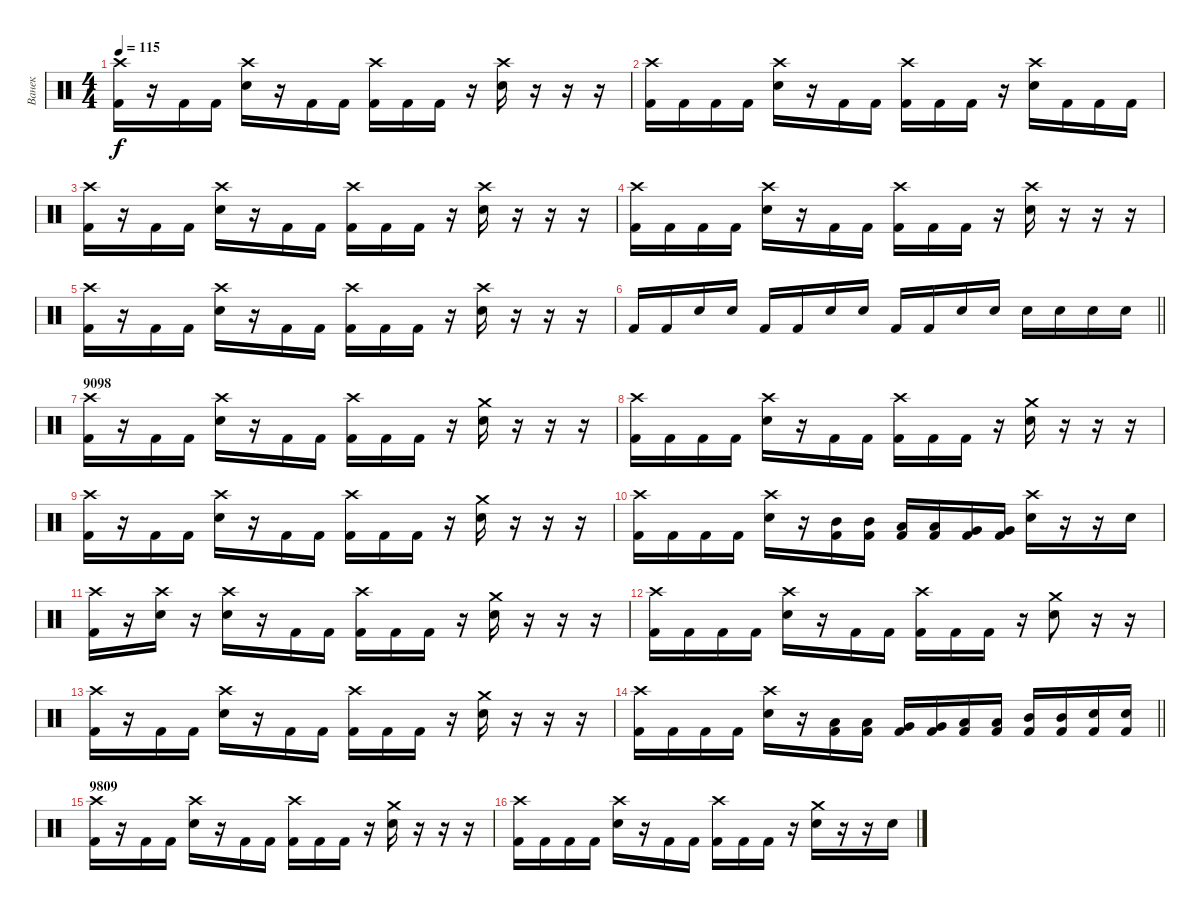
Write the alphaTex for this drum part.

\track ("Ванек" "Ванек") {instrument percussion}
\staff {score}
\articulation defaults
\ts (4 4)
\tempo 115
\clef neutral
\ks c
("Crash high (hit)" "Kick (hit) 2").16{dy f} r.16 "Kick (hit) 2".16 "Kick (hit) 2".16 ("Crash high (hit)" "Snare (hit) 2").16 r.16 "Kick (hit) 2".16 "Kick (hit) 2".16 ("Crash high (hit)" "Kick (hit) 2").16 "Kick (hit) 2".16 "Kick (hit) 2".16 r.16 ("Crash high (hit)" "Snare (hit) 2").16 r.16 r.16 r.16 |
("Crash high (hit)" "Kick (hit) 2").16 "Kick (hit) 2".16 "Kick (hit) 2".16 "Kick (hit) 2".16 ("Crash high (hit)" "Snare (hit) 2").16 r.16 "Kick (hit) 2".16 "Kick (hit) 2".16 ("Crash high (hit)" "Kick (hit) 2").16 "Kick (hit) 2".16 "Kick (hit) 2".16 r.16 ("Crash high (hit)" "Snare (hit) 2").16 "Kick (hit) 2".16 "Kick (hit) 2".16 "Kick (hit) 2".16 |
("Crash high (hit)" "Kick (hit) 2").16 r.16 "Kick (hit) 2".16 "Kick (hit) 2".16 ("Crash high (hit)" "Snare (hit) 2").16 r.16 "Kick (hit) 2".16 "Kick (hit) 2".16 ("Crash high (hit)" "Kick (hit) 2").16 "Kick (hit) 2".16 "Kick (hit) 2".16 r.16 ("Crash high (hit)" "Snare (hit) 2").16 r.16 r.16 r.16 |
("Crash high (hit)" "Kick (hit) 2").16 "Kick (hit) 2".16 "Kick (hit) 2".16 "Kick (hit) 2".16 ("Crash high (hit)" "Snare (hit) 2").16 r.16 "Kick (hit) 2".16 "Kick (hit) 2".16 ("Crash high (hit)" "Kick (hit) 2").16 "Kick (hit) 2".16 "Kick (hit) 2".16 r.16 ("Crash high (hit)" "Snare (hit) 2").16 r.16 r.16 r.16 |
("Crash high (hit)" "Kick (hit) 2").16 r.16 "Kick (hit) 2".16 "Kick (hit) 2".16 ("Crash high (hit)" "Snare (hit) 2").16 r.16 "Kick (hit) 2".16 "Kick (hit) 2".16 ("Crash high (hit)" "Kick (hit) 2").16 "Kick (hit) 2".16 "Kick (hit) 2".16 r.16 ("Crash high (hit)" "Snare (hit) 2").16 r.16 r.16 r.16 |
\barLineRight lightlight "Kick (hit) 2".16 "Kick (hit) 2".16 "Snare (hit) 2".16 "Snare (hit) 2".16 "Kick (hit) 2".16 "Kick (hit) 2".16 "Snare (hit) 2".16 "Snare (hit) 2".16 "Kick (hit) 2".16 "Kick (hit) 2".16 "Snare (hit) 2".16 "Snare (hit) 2".16 "Snare (hit) 2".16 "Snare (hit) 2".16 "Snare (hit) 2".16 "Snare (hit) 2".16
|
\section ("" "9098")
("Crash high (hit)" "Kick (hit) 2").16 r.16 "Kick (hit) 2".16 "Kick (hit) 2".16 ("Crash high (hit)" "Snare (hit) 2").16 r.16 "Kick (hit) 2".16 "Kick (hit) 2".16 ("Crash high (hit)" "Kick (hit) 2").16 "Kick (hit) 2".16 "Kick (hit) 2".16 r.16 ("Crash medium (hit)" "Snare (hit) 2").16 r.16 r.16 r.16 |
("Crash high (hit)" "Kick (hit) 2").16 "Kick (hit) 2".16 "Kick (hit) 2".16 "Kick (hit) 2".16 ("Crash high (hit)" "Snare (hit) 2").16 r.16 "Kick (hit) 2".16 "Kick (hit) 2".16 ("Crash high (hit)" "Kick (hit) 2").16 "Kick (hit) 2".16 "Kick (hit) 2".16 r.16 ("Crash medium (hit)" "Snare (hit) 2").16 r.16 r.16 r.16 |
("Crash high (hit)" "Kick (hit) 2").16 r.16 "Kick (hit) 2".16 "Kick (hit) 2".16 ("Crash high (hit)" "Snare (hit) 2").16 r.16 "Kick (hit) 2".16 "Kick (hit) 2".16 ("Crash high (hit)" "Kick (hit) 2").16 "Kick (hit) 2".16 "Kick (hit) 2".16 r.16 ("Crash medium (hit)" "Snare (hit) 2").16 r.16 r.16 r.16 |
("Crash high (hit)" "Kick (hit) 2").16 "Kick (hit) 2".16 "Kick (hit) 2".16 "Kick (hit) 2".16 ("Crash high (hit)" "Snare (hit) 2").16 r.16 ("Mid Tom (hit)" "Kick (hit) 2").16 ("Mid Tom (hit)" "Kick (hit) 2").16 ("Low Tom (hit)" "Kick (hit) 2").16 ("Low Floor Tom (hit)" "Kick (hit) 2").16 ("Very Low Tom (hit)" "Kick (hit) 2").16 ("Very Low Tom (hit)" "Kick (hit) 2").16 ("Crash high (hit)" "Snare (hit) 2").16 r.16 r.16 "Snare (hit) 2".16 |
("Crash high (hit)" "Kick (hit) 2").16 r.16 ("Crash high (hit)" "Snare (hit) 2").16 r.16 ("Crash high (hit)" "Snare (hit) 2").16 r.16 "Kick (hit) 2".16 "Kick (hit) 2".16 ("Crash high (hit)" "Kick (hit) 2").16 "Kick (hit) 2".16 "Kick (hit) 2".16 r.16 ("Crash medium (hit)" "Snare (hit) 2").16 r.16 r.16 r.16 |
("Crash high (hit)" "Kick (hit) 2").16 "Kick (hit) 2".16 "Kick (hit) 2".16 "Kick (hit) 2".16 ("Crash high (hit)" "Snare (hit) 2").16 r.16 "Kick (hit) 2".16 "Kick (hit) 2".16 ("Crash high (hit)" "Kick (hit) 2").16 "Kick (hit) 2".16 "Kick (hit) 2".16 r.16 ("Crash medium (hit)" "Snare (hit) 2").8 r.16 r.16 |
("Crash high (hit)" "Kick (hit) 2").16 r.16 "Kick (hit) 2".16 "Kick (hit) 2".16 ("Crash high (hit)" "Snare (hit) 2").16 r.16 "Kick (hit) 2".16 "Kick (hit) 2".16 ("Crash high (hit)" "Kick (hit) 2").16 "Kick (hit) 2".16 "Kick (hit) 2".16 r.16 ("Crash medium (hit)" "Snare (hit) 2").16 r.16 r.16 r.16 |
\barLineRight lightlight
("Crash high (hit)" "Kick (hit) 2").16 "Kick (hit) 2".16 "Kick (hit) 2".16 "Kick (hit) 2".16 ("Crash high (hit)" "Snare (hit) 2").16 r.16 ("Low Floor Tom (hit)" "Kick (hit) 2").16 ("Low Floor Tom (hit)" "Kick (hit) 2").16 ("Very Low Tom (hit)" "Kick (hit) 2").16 ("Very Low Tom (hit)" "Kick (hit) 2").16 ("Low Tom (hit)" "Kick (hit) 2").16 ("Low Tom (hit)" "Kick (hit) 2").16 ("Mid Tom (hit)" "Kick (hit) 2").16 ("Mid Tom (hit)" "Kick (hit) 2").16 ("Snare (hit) 2" "Kick (hit) 2").16 ("Snare (hit) 2" "Kick (hit) 2").16 |
\section ("" "9809")
("Crash high (hit)" "Kick (hit) 2").16 r.16 "Kick (hit) 2".16 "Kick (hit) 2".16 ("Crash high (hit)" "Snare (hit) 2").16 r.16 "Kick (hit) 2".16 "Kick (hit) 2".16 ("Crash high (hit)" "Kick (hit) 2").16 "Kick (hit) 2".16 "Kick (hit) 2".16 r.16 ("Crash medium (hit)" "Snare (hit) 2").16 r.16 r.16 r.16 |
("Crash high (hit)" "Kick (hit) 2").16 "Kick (hit) 2".16 "Kick (hit) 2".16 "Kick (hit) 2".16 ("Crash high (hit)" "Snare (hit) 2").16 r.16 "Kick (hit) 2".16 "Kick (hit) 2".16 ("Crash high (hit)" "Kick (hit) 2").16 "Kick (hit) 2".16 "Kick (hit) 2".16 r.16 ("Crash medium (hit)" "Snare (hit) 2").16 r.16 r.16 "Snare (hit) 2".16
